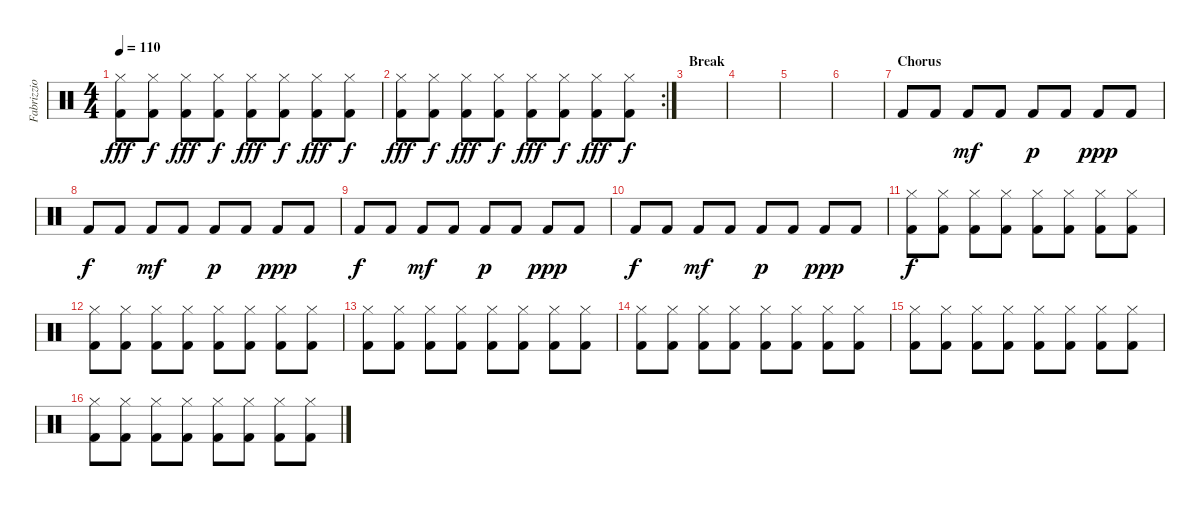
\track ("Fabrizzio Moretti Drums perfomance" "Fabrizzio ") {instrument percussion}
\staff {score}
\articulation defaults
\ts (4 4)
\tempo 110
\clef neutral
\ks c
("Hi-Hat (closed)" "Kick (hit) 2").8{dy fff} ("Hi-Hat (closed)" "Kick (hit) 2").8{dy f} ("Hi-Hat (closed)" "Kick (hit) 2").8{dy fff} ("Hi-Hat (closed)" "Kick (hit) 2").8{dy f} ("Hi-Hat (closed)" "Kick (hit) 2").8{dy fff} ("Hi-Hat (closed)" "Kick (hit) 2").8{dy f} ("Hi-Hat (closed)" "Kick (hit) 2").8{dy fff} ("Hi-Hat (closed)" "Kick (hit) 2").8{dy f} |
\rc 2
("Hi-Hat (closed)" "Kick (hit) 2").8{dy fff} ("Hi-Hat (closed)" "Kick (hit) 2").8{dy f} ("Hi-Hat (closed)" "Kick (hit) 2").8{dy fff} ("Hi-Hat (closed)" "Kick (hit) 2").8{dy f} ("Hi-Hat (closed)" "Kick (hit) 2").8{dy fff} ("Hi-Hat (closed)" "Kick (hit) 2").8{dy f} ("Hi-Hat (closed)" "Kick (hit) 2").8{dy fff} ("Hi-Hat (closed)" "Kick (hit) 2").8{dy f} |
\section ("" "Break")
|
|
|
|
\section ("" "Chorus")
"Kick (hit) 2".8 "Kick (hit) 2".8 "Kick (hit) 2".8{dy mf} "Kick (hit) 2".8 "Kick (hit) 2".8{dy p} "Kick (hit) 2".8 "Kick (hit) 2".8{dy ppp} "Kick (hit) 2".8 |
"Kick (hit) 2".8{dy f} "Kick (hit) 2".8 "Kick (hit) 2".8{dy mf} "Kick (hit) 2".8 "Kick (hit) 2".8{dy p} "Kick (hit) 2".8 "Kick (hit) 2".8{dy ppp} "Kick (hit) 2".8 |
"Kick (hit) 2".8{dy f} "Kick (hit) 2".8 "Kick (hit) 2".8{dy mf} "Kick (hit) 2".8 "Kick (hit) 2".8{dy p} "Kick (hit) 2".8 "Kick (hit) 2".8{dy ppp} "Kick (hit) 2".8 |
"Kick (hit) 2".8{dy f} "Kick (hit) 2".8 "Kick (hit) 2".8{dy mf} "Kick (hit) 2".8 "Kick (hit) 2".8{dy p} "Kick (hit) 2".8 "Kick (hit) 2".8{dy ppp} "Kick (hit) 2".8 |
("Kick (hit) 2" "Hi-Hat (closed)").8{dy f} ("Kick (hit) 2" "Hi-Hat (closed)").8 ("Kick (hit) 2" "Hi-Hat (closed)").8 ("Kick (hit) 2" "Hi-Hat (closed)").8 ("Kick (hit) 2" "Hi-Hat (closed)").8 ("Kick (hit) 2" "Hi-Hat (closed)").8 ("Kick (hit) 2" "Hi-Hat (closed)").8 ("Kick (hit) 2" "Hi-Hat (closed)").8 |
("Kick (hit) 2" "Hi-Hat (closed)").8 ("Kick (hit) 2" "Hi-Hat (closed)").8 ("Kick (hit) 2" "Hi-Hat (closed)").8 ("Kick (hit) 2" "Hi-Hat (closed)").8 ("Kick (hit) 2" "Hi-Hat (closed)").8 ("Kick (hit) 2" "Hi-Hat (closed)").8 ("Kick (hit) 2" "Hi-Hat (closed)").8 ("Kick (hit) 2" "Hi-Hat (closed)").8 |
("Kick (hit) 2" "Hi-Hat (closed)").8 ("Kick (hit) 2" "Hi-Hat (closed)").8 ("Kick (hit) 2" "Hi-Hat (closed)").8 ("Kick (hit) 2" "Hi-Hat (closed)").8 ("Kick (hit) 2" "Hi-Hat (closed)").8 ("Kick (hit) 2" "Hi-Hat (closed)").8 ("Kick (hit) 2" "Hi-Hat (closed)").8 ("Kick (hit) 2" "Hi-Hat (closed)").8 |
("Kick (hit) 2" "Hi-Hat (closed)").8 ("Kick (hit) 2" "Hi-Hat (closed)").8 ("Kick (hit) 2" "Hi-Hat (closed)").8 ("Kick (hit) 2" "Hi-Hat (closed)").8 ("Kick (hit) 2" "Hi-Hat (closed)").8 ("Kick (hit) 2" "Hi-Hat (closed)").8 ("Kick (hit) 2" "Hi-Hat (closed)").8 ("Kick (hit) 2" "Hi-Hat (closed)").8 |
("Kick (hit) 2" "Hi-Hat (closed)").8 ("Kick (hit) 2" "Hi-Hat (closed)").8 ("Kick (hit) 2" "Hi-Hat (closed)").8 ("Kick (hit) 2" "Hi-Hat (closed)").8 ("Kick (hit) 2" "Hi-Hat (closed)").8 ("Kick (hit) 2" "Hi-Hat (closed)").8 ("Kick (hit) 2" "Hi-Hat (closed)").8 ("Kick (hit) 2" "Hi-Hat (closed)").8 |
("Kick (hit) 2" "Hi-Hat (closed)").8 ("Kick (hit) 2" "Hi-Hat (closed)").8 ("Kick (hit) 2" "Hi-Hat (closed)").8 ("Kick (hit) 2" "Hi-Hat (closed)").8 ("Kick (hit) 2" "Hi-Hat (closed)").8 ("Kick (hit) 2" "Hi-Hat (closed)").8 ("Kick (hit) 2" "Hi-Hat (closed)").8 ("Kick (hit) 2" "Hi-Hat (closed)").8
